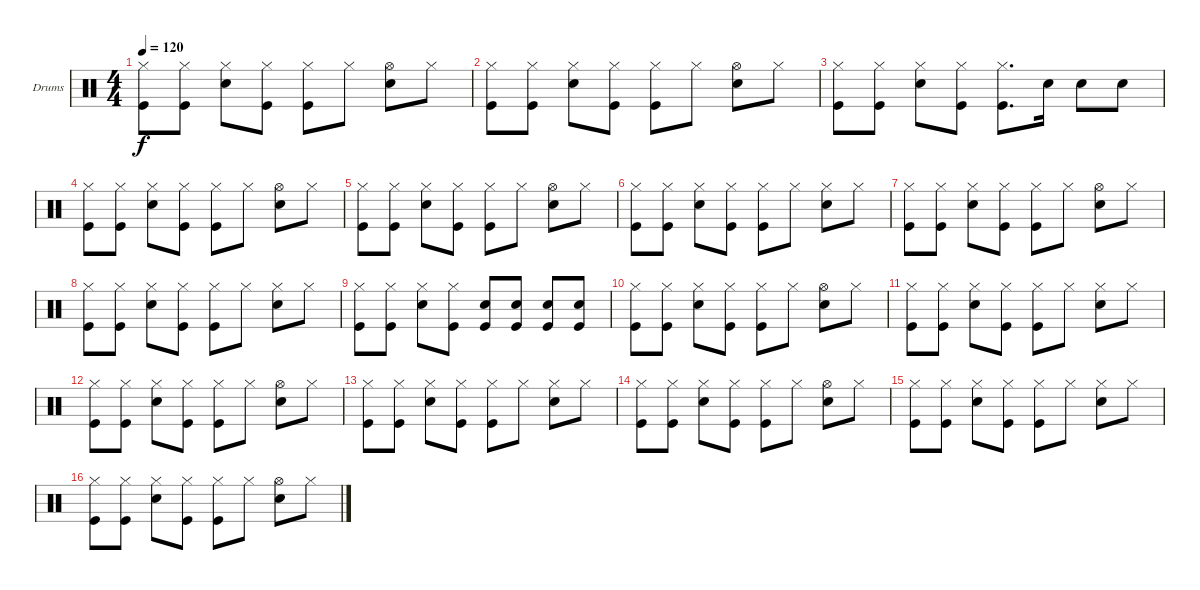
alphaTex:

\bracketExtendMode groupsimilarinstruments
\firstSystemTrackNameOrientation horizontal
\otherSystemsTrackNameOrientation horizontal
\track ("Drumkit" "Drums") {instrument percussion}
\staff {score}
\articulation defaults
\ts (4 4)
\tempo 120
\clef neutral
\ks c
("Kick (hit)" "Hi-Hat (closed)").8{dy f} ("Kick (hit)" "Hi-Hat (closed)").8 ("Snare (hit) 2" "Hi-Hat (closed)").8 ("Kick (hit)" "Hi-Hat (closed)").8 ("Kick (hit)" "Hi-Hat (closed)").8 "Hi-Hat (closed)".8 ("Snare (hit) 2" "Hi-Hat (open)").8 "Hi-Hat (closed)".8 |
("Kick (hit)" "Hi-Hat (closed)").8 ("Kick (hit)" "Hi-Hat (closed)").8 ("Snare (hit) 2" "Hi-Hat (closed)").8 ("Kick (hit)" "Hi-Hat (closed)").8 ("Kick (hit)" "Hi-Hat (closed)").8 "Hi-Hat (closed)".8 ("Snare (hit) 2" "Hi-Hat (open)").8 "Hi-Hat (closed)".8 |
("Kick (hit)" "Hi-Hat (closed)").8 ("Kick (hit)" "Hi-Hat (closed)").8 ("Snare (hit) 2" "Hi-Hat (closed)").8 ("Kick (hit)" "Hi-Hat (closed)").8 ("Kick (hit)" "Hi-Hat (closed)").8{d} "Snare (hit) 2".16 "Snare (hit) 2".8 "Snare (hit) 2".8 |
("Kick (hit)" "Hi-Hat (closed)").8 ("Kick (hit)" "Hi-Hat (closed)").8 ("Snare (hit) 2" "Hi-Hat (closed)").8 ("Kick (hit)" "Hi-Hat (closed)").8 ("Kick (hit)" "Hi-Hat (closed)").8 "Hi-Hat (closed)".8 ("Snare (hit) 2" "Hi-Hat (open)").8 "Hi-Hat (closed)".8 |
("Kick (hit)" "Hi-Hat (closed)").8 ("Kick (hit)" "Hi-Hat (closed)").8 ("Snare (hit) 2" "Hi-Hat (closed)").8 ("Kick (hit)" "Hi-Hat (closed)").8 ("Kick (hit)" "Hi-Hat (closed)").8 "Hi-Hat (closed)".8 ("Snare (hit) 2" "Hi-Hat (open)").8 "Hi-Hat (closed)".8 |
("Kick (hit)" "Hi-Hat (closed)").8 ("Kick (hit)" "Hi-Hat (closed)").8 ("Snare (hit) 2" "Hi-Hat (closed)").8 ("Kick (hit)" "Hi-Hat (closed)").8 ("Kick (hit)" "Hi-Hat (closed)").8 "Hi-Hat (closed)".8 ("Snare (hit) 2" "Hi-Hat (closed)").8 "Hi-Hat (closed)".8 |
("Kick (hit)" "Hi-Hat (closed)").8 ("Kick (hit)" "Hi-Hat (closed)").8 ("Snare (hit) 2" "Hi-Hat (closed)").8 ("Kick (hit)" "Hi-Hat (closed)").8 ("Kick (hit)" "Hi-Hat (closed)").8 "Hi-Hat (closed)".8 ("Snare (hit) 2" "Hi-Hat (open)").8 "Hi-Hat (closed)".8 |
("Kick (hit)" "Hi-Hat (closed)").8 ("Kick (hit)" "Hi-Hat (closed)").8 ("Snare (hit) 2" "Hi-Hat (closed)").8 ("Kick (hit)" "Hi-Hat (closed)").8 ("Kick (hit)" "Hi-Hat (closed)").8 "Hi-Hat (closed)".8 ("Snare (hit) 2" "Hi-Hat (closed)").8 "Hi-Hat (closed)".8 |
("Kick (hit)" "Hi-Hat (closed)").8 ("Kick (hit)" "Hi-Hat (closed)").8 ("Snare (hit) 2" "Hi-Hat (closed)").8 ("Kick (hit)" "Hi-Hat (closed)").8 ("Kick (hit)" "Snare (hit) 2").8 ("Kick (hit)" "Snare (hit) 2").8 ("Kick (hit)" "Snare (hit) 2").8 ("Kick (hit)" "Snare (hit) 2").8 |
("Kick (hit)" "Hi-Hat (closed)").8 ("Kick (hit)" "Hi-Hat (closed)").8 ("Snare (hit) 2" "Hi-Hat (closed)").8 ("Kick (hit)" "Hi-Hat (closed)").8 ("Kick (hit)" "Hi-Hat (closed)").8 "Hi-Hat (closed)".8 ("Snare (hit) 2" "Hi-Hat (open)").8 "Hi-Hat (closed)".8 |
("Kick (hit)" "Hi-Hat (closed)").8 ("Kick (hit)" "Hi-Hat (closed)").8 ("Snare (hit) 2" "Hi-Hat (closed)").8 ("Kick (hit)" "Hi-Hat (closed)").8 ("Kick (hit)" "Hi-Hat (closed)").8 "Hi-Hat (closed)".8 ("Snare (hit) 2" "Hi-Hat (closed)").8 "Hi-Hat (closed)".8 |
("Kick (hit)" "Hi-Hat (closed)").8 ("Kick (hit)" "Hi-Hat (closed)").8 ("Snare (hit) 2" "Hi-Hat (closed)").8 ("Kick (hit)" "Hi-Hat (closed)").8 ("Kick (hit)" "Hi-Hat (closed)").8 "Hi-Hat (closed)".8 ("Snare (hit) 2" "Hi-Hat (open)").8 "Hi-Hat (closed)".8 |
("Kick (hit)" "Hi-Hat (closed)").8 ("Kick (hit)" "Hi-Hat (closed)").8 ("Snare (hit) 2" "Hi-Hat (closed)").8 ("Kick (hit)" "Hi-Hat (closed)").8 ("Kick (hit)" "Hi-Hat (closed)").8 "Hi-Hat (closed)".8 ("Snare (hit) 2" "Hi-Hat (closed)").8 "Hi-Hat (closed)".8 |
("Kick (hit)" "Hi-Hat (closed)").8 ("Kick (hit)" "Hi-Hat (closed)").8 ("Snare (hit) 2" "Hi-Hat (closed)").8 ("Kick (hit)" "Hi-Hat (closed)").8 ("Kick (hit)" "Hi-Hat (closed)").8 "Hi-Hat (closed)".8 ("Snare (hit) 2" "Hi-Hat (open)").8 "Hi-Hat (closed)".8 |
("Kick (hit)" "Hi-Hat (closed)").8 ("Kick (hit)" "Hi-Hat (closed)").8 ("Snare (hit) 2" "Hi-Hat (closed)").8 ("Kick (hit)" "Hi-Hat (closed)").8 ("Kick (hit)" "Hi-Hat (closed)").8 "Hi-Hat (closed)".8 ("Snare (hit) 2" "Hi-Hat (closed)").8 "Hi-Hat (closed)".8 |
("Kick (hit)" "Hi-Hat (closed)").8 ("Kick (hit)" "Hi-Hat (closed)").8 ("Snare (hit) 2" "Hi-Hat (closed)").8 ("Kick (hit)" "Hi-Hat (closed)").8 ("Kick (hit)" "Hi-Hat (closed)").8 "Hi-Hat (closed)".8 ("Snare (hit) 2" "Hi-Hat (open)").8 "Hi-Hat (closed)".8
